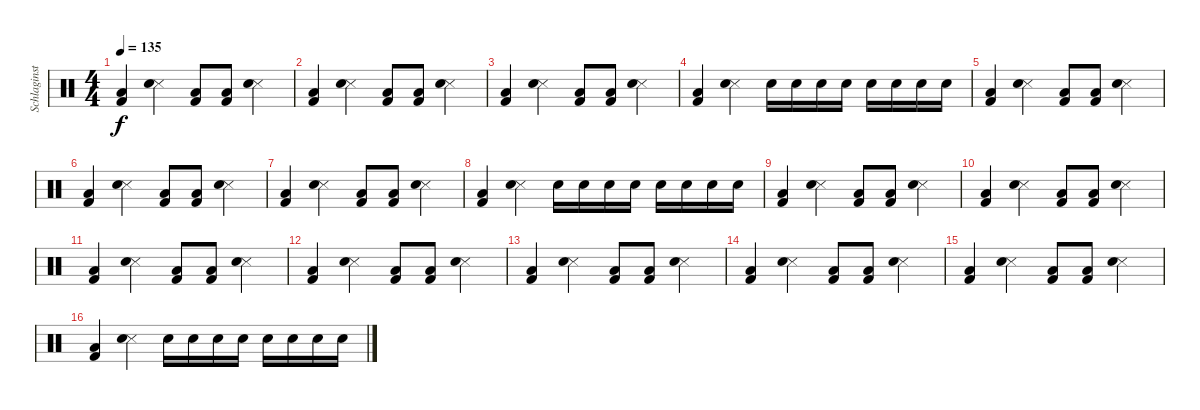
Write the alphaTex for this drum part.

\track ("Schlaginstrumente - Auswahl" "Schlaginst") {instrument percussion}
\staff {score}
\articulation defaults
\ts (4 4)
\tempo 135
\clef neutral
\ks c
("Kick (hit) 2" "Low Tom (hit)").4{dy f} ("Snare (side stick) 3" "Electric Snare (hit)").4 ("Kick (hit) 2" "Low Tom (hit)").8 ("Kick (hit) 2" "Low Tom (hit)").8 ("Snare (side stick) 3" "Electric Snare (hit)").4 |
("Kick (hit) 2" "Low Tom (hit)").4 ("Snare (side stick) 3" "Electric Snare (hit)").4 ("Kick (hit) 2" "Low Tom (hit)").8 ("Kick (hit) 2" "Low Tom (hit)").8 ("Snare (side stick) 3" "Electric Snare (hit)").4 |
("Kick (hit) 2" "Low Tom (hit)").4 ("Snare (side stick) 3" "Electric Snare (hit)").4 ("Kick (hit) 2" "Low Tom (hit)").8 ("Kick (hit) 2" "Low Tom (hit)").8 ("Snare (side stick) 3" "Electric Snare (hit)").4 |
("Kick (hit) 2" "Low Tom (hit)").4 ("Snare (side stick) 3" "Electric Snare (hit)").4 "Electric Snare (hit)".16 "Electric Snare (hit)".16 "Electric Snare (hit)".16 "Electric Snare (hit)".16 "Electric Snare (hit)".16 "Electric Snare (hit)".16 "Electric Snare (hit)".16 "Electric Snare (hit)".16 |
("Kick (hit) 2" "Low Tom (hit)").4 ("Snare (side stick) 3" "Electric Snare (hit)").4 ("Kick (hit) 2" "Low Tom (hit)").8 ("Kick (hit) 2" "Low Tom (hit)").8 ("Snare (side stick) 3" "Electric Snare (hit)").4 |
("Kick (hit) 2" "Low Tom (hit)").4 ("Snare (side stick) 3" "Electric Snare (hit)").4 ("Kick (hit) 2" "Low Tom (hit)").8 ("Kick (hit) 2" "Low Tom (hit)").8 ("Snare (side stick) 3" "Electric Snare (hit)").4 |
("Kick (hit) 2" "Low Tom (hit)").4 ("Snare (side stick) 3" "Electric Snare (hit)").4 ("Kick (hit) 2" "Low Tom (hit)").8 ("Kick (hit) 2" "Low Tom (hit)").8 ("Snare (side stick) 3" "Electric Snare (hit)").4 |
("Kick (hit) 2" "Low Tom (hit)").4 ("Snare (side stick) 3" "Electric Snare (hit)").4 "Electric Snare (hit)".16 "Electric Snare (hit)".16 "Electric Snare (hit)".16 "Electric Snare (hit)".16 "Electric Snare (hit)".16 "Electric Snare (hit)".16 "Electric Snare (hit)".16 "Electric Snare (hit)".16 |
("Kick (hit) 2" "Low Tom (hit)").4 ("Snare (side stick) 3" "Electric Snare (hit)").4 ("Kick (hit) 2" "Low Tom (hit)").8 ("Kick (hit) 2" "Low Tom (hit)").8 ("Snare (side stick) 3" "Electric Snare (hit)").4 |
("Kick (hit) 2" "Low Tom (hit)").4 ("Snare (side stick) 3" "Electric Snare (hit)").4 ("Kick (hit) 2" "Low Tom (hit)").8 ("Kick (hit) 2" "Low Tom (hit)").8 ("Snare (side stick) 3" "Electric Snare (hit)").4 |
("Kick (hit) 2" "Low Tom (hit)").4 ("Snare (side stick) 3" "Electric Snare (hit)").4 ("Kick (hit) 2" "Low Tom (hit)").8 ("Kick (hit) 2" "Low Tom (hit)").8 ("Snare (side stick) 3" "Electric Snare (hit)").4 |
("Kick (hit) 2" "Low Tom (hit)").4 ("Snare (side stick) 3" "Electric Snare (hit)").4 ("Kick (hit) 2" "Low Tom (hit)").8 ("Kick (hit) 2" "Low Tom (hit)").8 ("Snare (side stick) 3" "Electric Snare (hit)").4 |
("Kick (hit) 2" "Low Tom (hit)").4 ("Snare (side stick) 3" "Electric Snare (hit)").4 ("Kick (hit) 2" "Low Tom (hit)").8 ("Kick (hit) 2" "Low Tom (hit)").8 ("Snare (side stick) 3" "Electric Snare (hit)").4 |
("Kick (hit) 2" "Low Tom (hit)").4 ("Snare (side stick) 3" "Electric Snare (hit)").4 ("Kick (hit) 2" "Low Tom (hit)").8 ("Kick (hit) 2" "Low Tom (hit)").8 ("Snare (side stick) 3" "Electric Snare (hit)").4 |
("Kick (hit) 2" "Low Tom (hit)").4 ("Snare (side stick) 3" "Electric Snare (hit)").4 ("Kick (hit) 2" "Low Tom (hit)").8 ("Kick (hit) 2" "Low Tom (hit)").8 ("Snare (side stick) 3" "Electric Snare (hit)").4 |
("Kick (hit) 2" "Low Tom (hit)").4 ("Snare (side stick) 3" "Electric Snare (hit)").4 "Electric Snare (hit)".16 "Electric Snare (hit)".16 "Electric Snare (hit)".16 "Electric Snare (hit)".16 "Electric Snare (hit)".16 "Electric Snare (hit)".16 "Electric Snare (hit)".16 "Electric Snare (hit)".16
